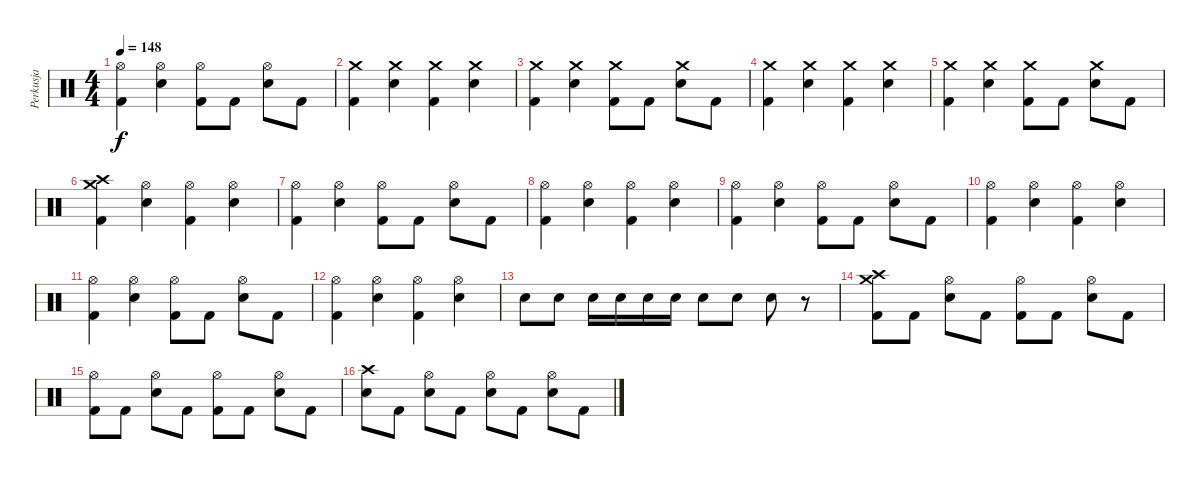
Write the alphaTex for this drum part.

\track ("Perkusja" "Perkusja") {instrument percussion}
\staff {score}
\articulation defaults
\ts (4 4)
\tempo 148
\clef neutral
\ks c
("Hi-Hat (open)" "Kick (hit) 2").4{dy f} ("Hi-Hat (open)" "Snare (hit) 2").4 ("Hi-Hat (open)" "Kick (hit) 2").8 "Kick (hit) 2".8 ("Hi-Hat (open)" "Snare (hit) 2").8 "Kick (hit) 2".8 |
("Crash medium (hit)" "Kick (hit) 2").4 ("Crash medium (hit)" "Snare (hit) 2").4 ("Crash medium (hit)" "Kick (hit) 2").4 ("Crash medium (hit)" "Snare (hit) 2").4 |
("Crash medium (hit)" "Kick (hit) 2").4 ("Crash medium (hit)" "Snare (hit) 2").4 ("Crash medium (hit)" "Kick (hit) 2").8 "Kick (hit) 2".8 ("Crash medium (hit)" "Snare (hit) 2").8 "Kick (hit) 2".8 |
("Crash medium (hit)" "Kick (hit) 2").4 ("Crash medium (hit)" "Snare (hit) 2").4 ("Crash medium (hit)" "Kick (hit) 2").4 ("Crash medium (hit)" "Snare (hit) 2").4 |
("Crash medium (hit)" "Kick (hit) 2").4 ("Crash medium (hit)" "Snare (hit) 2").4 ("Crash medium (hit)" "Kick (hit) 2").8 "Kick (hit) 2".8 ("Crash medium (hit)" "Snare (hit) 2").8 "Kick (hit) 2".8 |
("Crash high (hit)" "Crash medium (hit)" "Kick (hit) 2").4 ("Hi-Hat (open)" "Snare (hit) 2").4 ("Hi-Hat (open)" "Kick (hit) 2").4 ("Hi-Hat (open)" "Snare (hit) 2").4 |
("Hi-Hat (open)" "Kick (hit) 2").4 ("Hi-Hat (open)" "Snare (hit) 2").4 ("Hi-Hat (open)" "Kick (hit) 2").8 "Kick (hit) 2".8 ("Hi-Hat (open)" "Snare (hit) 2").8 "Kick (hit) 2".8 |
("Hi-Hat (open)" "Kick (hit) 2").4 ("Hi-Hat (open)" "Snare (hit) 2").4 ("Hi-Hat (open)" "Kick (hit) 2").4 ("Hi-Hat (open)" "Snare (hit) 2").4 |
("Hi-Hat (open)" "Kick (hit) 2").4 ("Hi-Hat (open)" "Snare (hit) 2").4 ("Hi-Hat (open)" "Kick (hit) 2").8 "Kick (hit) 2".8 ("Hi-Hat (open)" "Snare (hit) 2").8 "Kick (hit) 2".8 |
("Hi-Hat (open)" "Kick (hit) 2").4 ("Hi-Hat (open)" "Snare (hit) 2").4 ("Hi-Hat (open)" "Kick (hit) 2").4 ("Hi-Hat (open)" "Snare (hit) 2").4 |
("Hi-Hat (open)" "Kick (hit) 2").4 ("Hi-Hat (open)" "Snare (hit) 2").4 ("Hi-Hat (open)" "Kick (hit) 2").8 "Kick (hit) 2".8 ("Hi-Hat (open)" "Snare (hit) 2").8 "Kick (hit) 2".8 |
("Hi-Hat (open)" "Kick (hit) 2").4 ("Hi-Hat (open)" "Snare (hit) 2").4 ("Hi-Hat (open)" "Kick (hit) 2").4 ("Hi-Hat (open)" "Snare (hit) 2").4 |
"Snare (hit) 2".8 "Snare (hit) 2".8 "Snare (hit) 2".16 "Snare (hit) 2".16 "Snare (hit) 2".16 "Snare (hit) 2".16 "Snare (hit) 2".8 "Snare (hit) 2".8 "Snare (hit) 2".8 r.8 |
("Crash high (hit)" "Crash medium (hit)" "Kick (hit) 2").8 "Kick (hit) 2".8 ("Hi-Hat (open)" "Snare (hit) 2").8 "Kick (hit) 2".8 ("Hi-Hat (open)" "Kick (hit) 2").8 "Kick (hit) 2".8 ("Hi-Hat (open)" "Snare (hit) 2").8 "Kick (hit) 2".8 |
("Hi-Hat (open)" "Kick (hit) 2").8 "Kick (hit) 2".8 ("Hi-Hat (open)" "Snare (hit) 2").8 "Kick (hit) 2".8 ("Hi-Hat (open)" "Kick (hit) 2").8 "Kick (hit) 2".8 ("Hi-Hat (open)" "Snare (hit) 2").8 "Kick (hit) 2".8 |
("Crash high (hit)" "Snare (hit) 2").8 "Kick (hit) 2".8 ("Hi-Hat (open)" "Snare (hit) 2").8 "Kick (hit) 2".8 ("Hi-Hat (open)" "Snare (hit) 2").8 "Kick (hit) 2".8 ("Hi-Hat (open)" "Snare (hit) 2").8 "Kick (hit) 2".8
